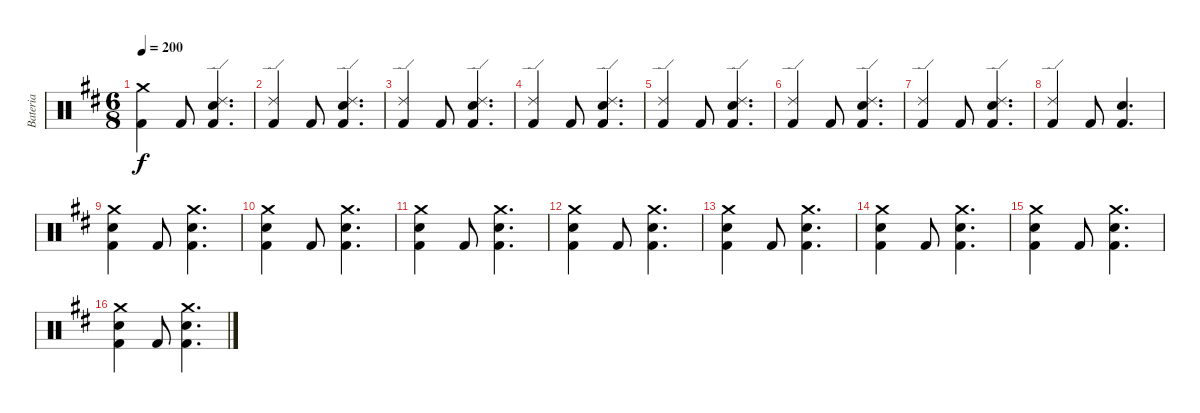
\track ("Bateria" "Bateria") {instrument percussion}
\staff {score}
\articulation defaults
\ts (6 8)
\tempo 200
\clef neutral
\ks bminor
("Crash medium (hit)" "Kick (hit) 2").4{dy f} "Kick (hit) 2".8 ("Ride (edge) 2" "Electric Snare (hit)" "Kick (hit) 2").4{d} |
("Ride (edge) 2" "Kick (hit) 2").4 "Kick (hit) 2".8 ("Ride (edge) 2" "Electric Snare (hit)" "Kick (hit) 2").4{d} |
("Ride (edge) 2" "Kick (hit) 2").4 "Kick (hit) 2".8 ("Ride (edge) 2" "Electric Snare (hit)" "Kick (hit) 2").4{d} |
("Ride (edge) 2" "Kick (hit) 2").4 "Kick (hit) 2".8 ("Ride (edge) 2" "Electric Snare (hit)" "Kick (hit) 2").4{d} |
("Ride (edge) 2" "Kick (hit) 2").4 "Kick (hit) 2".8 ("Ride (edge) 2" "Electric Snare (hit)" "Kick (hit) 2").4{d} |
("Ride (edge) 2" "Kick (hit) 2").4 "Kick (hit) 2".8 ("Ride (edge) 2" "Electric Snare (hit)" "Kick (hit) 2").4{d} |
("Ride (edge) 2" "Kick (hit) 2").4 "Kick (hit) 2".8 ("Ride (edge) 2" "Electric Snare (hit)" "Kick (hit) 2").4{d} |
("Ride (edge) 2" "Kick (hit) 2").4 "Kick (hit) 2".8 ("Electric Snare (hit)" "Kick (hit) 2").4{d} |
("Crash medium (hit)" "Electric Snare (hit)" "Kick (hit) 2").4 "Kick (hit) 2".8 ("Crash medium (hit)" "Electric Snare (hit)" "Kick (hit) 2").4{d} |
("Crash medium (hit)" "Electric Snare (hit)" "Kick (hit) 2").4 "Kick (hit) 2".8 ("Crash medium (hit)" "Electric Snare (hit)" "Kick (hit) 2").4{d} |
("Crash medium (hit)" "Electric Snare (hit)" "Kick (hit) 2").4 "Kick (hit) 2".8 ("Crash medium (hit)" "Electric Snare (hit)" "Kick (hit) 2").4{d} |
("Crash medium (hit)" "Electric Snare (hit)" "Kick (hit) 2").4 "Kick (hit) 2".8 ("Crash medium (hit)" "Electric Snare (hit)" "Kick (hit) 2").4{d} |
("Crash medium (hit)" "Electric Snare (hit)" "Kick (hit) 2").4 "Kick (hit) 2".8 ("Crash medium (hit)" "Electric Snare (hit)" "Kick (hit) 2").4{d} |
("Crash medium (hit)" "Electric Snare (hit)" "Kick (hit) 2").4 "Kick (hit) 2".8 ("Crash medium (hit)" "Electric Snare (hit)" "Kick (hit) 2").4{d} |
("Crash medium (hit)" "Electric Snare (hit)" "Kick (hit) 2").4 "Kick (hit) 2".8 ("Crash medium (hit)" "Electric Snare (hit)" "Kick (hit) 2").4{d} |
("Crash medium (hit)" "Electric Snare (hit)" "Kick (hit) 2").4 "Kick (hit) 2".8 ("Crash medium (hit)" "Electric Snare (hit)" "Kick (hit) 2").4{d}
